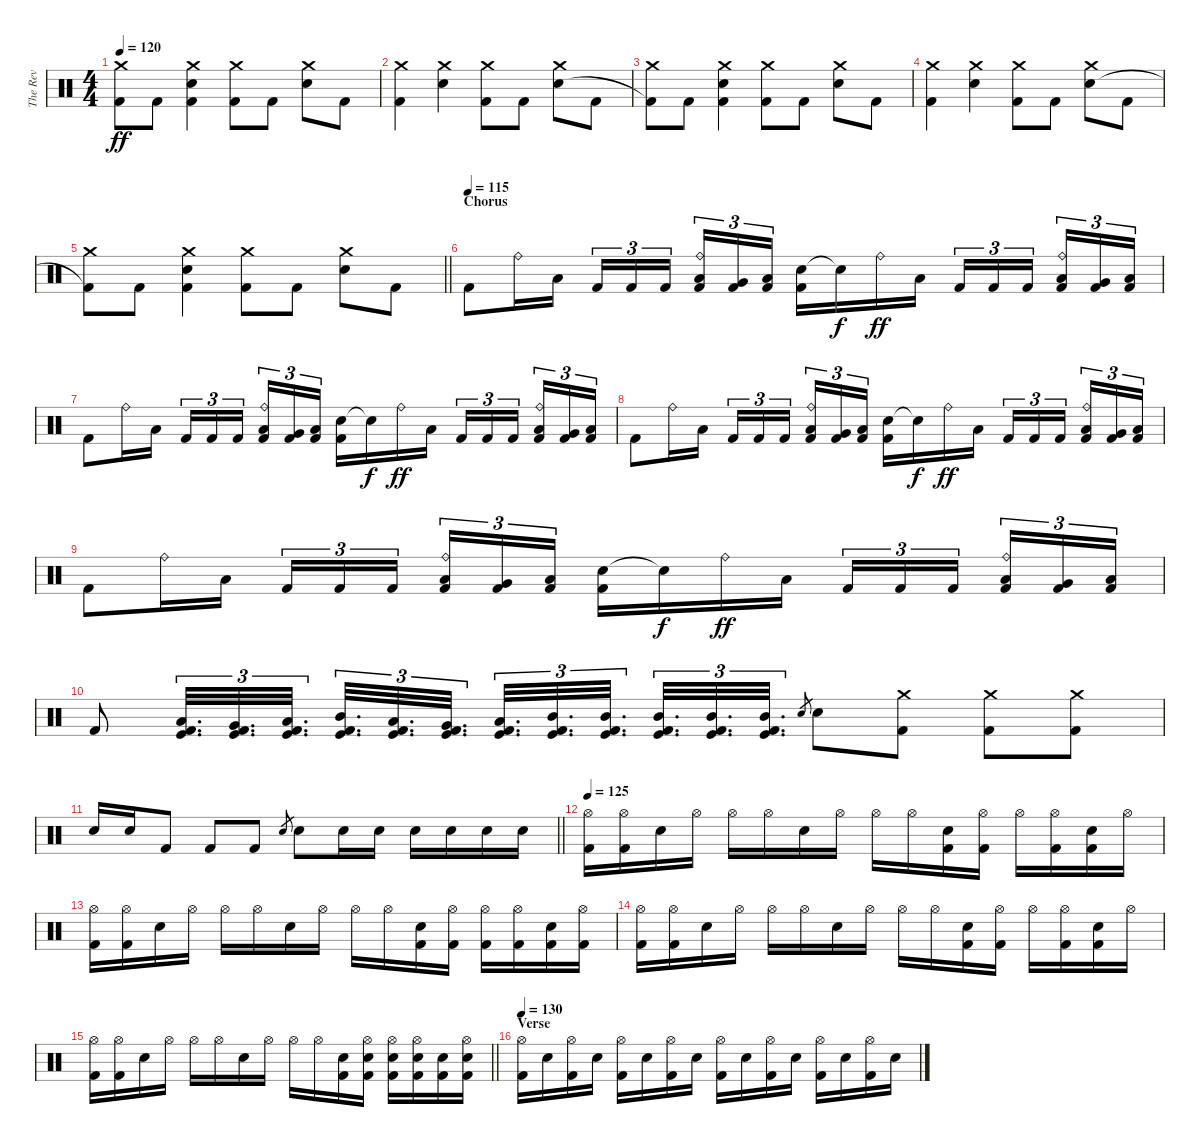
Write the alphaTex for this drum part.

\track ("The Rev" "The Rev") {instrument percussion}
\staff {score}
\articulation defaults
\ts (4 4)
\tempo 120
\clef neutral
\ks c
("Crash medium (hit)" "Kick (hit) 2"{t}).8{dy ff} "Kick (hit) 2".8 ("Crash medium (hit)" "Electric Snare (hit)" "Kick (hit) 2").4 ("Crash medium (hit)" "Kick (hit) 2").8 "Kick (hit) 2".8 ("Crash medium (hit)" "Electric Snare (hit)").8 "Kick (hit) 2".8 |
("Crash medium (hit)" "Kick (hit) 2").4 ("Crash medium (hit)" "Electric Snare (hit)").4 ("Crash medium (hit)" "Kick (hit) 2").8 "Kick (hit) 2".8 ("Crash medium (hit)" "Electric Snare (hit)").8 "Kick (hit) 2".8 |
("Crash medium (hit)" "Kick (hit) 2"{t}).8 "Kick (hit) 2".8 ("Crash medium (hit)" "Electric Snare (hit)" "Kick (hit) 2").4 ("Crash medium (hit)" "Kick (hit) 2").8 "Kick (hit) 2".8 ("Crash medium (hit)" "Electric Snare (hit)").8 "Kick (hit) 2".8 |
("Crash medium (hit)" "Kick (hit) 2").4 ("Crash medium (hit)" "Electric Snare (hit)").4 ("Crash medium (hit)" "Kick (hit) 2").8 "Kick (hit) 2".8 ("Crash medium (hit)" "Electric Snare (hit)").8 "Kick (hit) 2".8 |
\barLineRight lightlight
("Crash medium (hit)" "Kick (hit) 2"{t}).8 "Kick (hit) 2".8 ("Crash medium (hit)" "Electric Snare (hit)" "Kick (hit) 2").4 ("Crash medium (hit)" "Kick (hit) 2").8 "Kick (hit) 2".8 ("Crash medium (hit)" "Electric Snare (hit)").8 "Kick (hit) 2".8 |
\section ("" "Chorus")
\tempo (115)
"Kick (hit) 2".8 "Ride (bell)".16 "Low Tom (hit)".16 "Kick (hit) 2".16{tu (3 2)} "Kick (hit) 2".16{tu (3 2)} "Kick (hit) 2".16{tu (3 2) beam splitsecondary} ("Ride (bell)" "Low Tom (hit)" "Kick (hit) 2").16{tu (3 2)} ("Very Low Tom (hit)" "Kick (hit) 2").16{tu (3 2)} ("Low Floor Tom (hit)" "Kick (hit) 2").16{tu (3 2)} ("Electric Snare (hit)" "Kick (hit) 2").16 "Snare (hit)"{t}.16{dy f} "Ride (bell)".16{dy ff} "Low Tom (hit)".16 "Kick (hit) 2".16{tu (3 2)} "Kick (hit) 2".16{tu (3 2)} "Kick (hit) 2".16{tu (3 2) beam splitsecondary} ("Ride (bell)" "Low Tom (hit)" "Kick (hit) 2").16{tu (3 2)} ("Very Low Tom (hit)" "Kick (hit) 2").16{tu (3 2)} ("Low Floor Tom (hit)" "Kick (hit) 2").16{tu (3 2)} |
"Kick (hit) 2".8 "Ride (bell)".16 "Low Tom (hit)".16 "Kick (hit) 2".16{tu (3 2)} "Kick (hit) 2".16{tu (3 2)} "Kick (hit) 2".16{tu (3 2) beam splitsecondary} ("Ride (bell)" "Low Tom (hit)" "Kick (hit) 2").16{tu (3 2)} ("Very Low Tom (hit)" "Kick (hit) 2").16{tu (3 2)} ("Low Floor Tom (hit)" "Kick (hit) 2").16{tu (3 2)} ("Electric Snare (hit)" "Kick (hit) 2").16 "Snare (hit)"{t}.16{dy f} "Ride (bell)".16{dy ff} "Low Tom (hit)".16 "Kick (hit) 2".16{tu (3 2)} "Kick (hit) 2".16{tu (3 2)} "Kick (hit) 2".16{tu (3 2) beam splitsecondary} ("Ride (bell)" "Low Tom (hit)" "Kick (hit) 2").16{tu (3 2)} ("Very Low Tom (hit)" "Kick (hit) 2").16{tu (3 2)} ("Low Floor Tom (hit)" "Kick (hit) 2").16{tu (3 2)} |
"Kick (hit) 2".8 "Ride (bell)".16 "Low Tom (hit)".16 "Kick (hit) 2".16{tu (3 2)} "Kick (hit) 2".16{tu (3 2)} "Kick (hit) 2".16{tu (3 2) beam splitsecondary} ("Ride (bell)" "Low Tom (hit)" "Kick (hit) 2").16{tu (3 2)} ("Very Low Tom (hit)" "Kick (hit) 2").16{tu (3 2)} ("Low Floor Tom (hit)" "Kick (hit) 2").16{tu (3 2)} ("Electric Snare (hit)" "Kick (hit) 2").16 "Snare (hit)"{t}.16{dy f} "Ride (bell)".16{dy ff} "Low Tom (hit)".16 "Kick (hit) 2".16{tu (3 2)} "Kick (hit) 2".16{tu (3 2)} "Kick (hit) 2".16{tu (3 2) beam splitsecondary} ("Ride (bell)" "Low Tom (hit)" "Kick (hit) 2").16{tu (3 2)} ("Very Low Tom (hit)" "Kick (hit) 2").16{tu (3 2)} ("Low Floor Tom (hit)" "Kick (hit) 2").16{tu (3 2)} |
"Kick (hit) 2".8 "Ride (bell)".16 "Low Tom (hit)".16 "Kick (hit) 2".16{tu (3 2)} "Kick (hit) 2".16{tu (3 2)} "Kick (hit) 2".16{tu (3 2) beam splitsecondary} ("Ride (bell)" "Low Tom (hit)" "Kick (hit) 2").16{tu (3 2)} ("Very Low Tom (hit)" "Kick (hit) 2").16{tu (3 2)} ("Low Floor Tom (hit)" "Kick (hit) 2").16{tu (3 2)} ("Electric Snare (hit)" "Kick (hit) 2").16 "Snare (hit)"{t}.16{dy f} "Ride (bell)".16{dy ff} "Low Tom (hit)".16 "Kick (hit) 2".16{tu (3 2)} "Kick (hit) 2".16{tu (3 2)} "Kick (hit) 2".16{tu (3 2) beam splitsecondary} ("Ride (bell)" "Low Tom (hit)" "Kick (hit) 2").16{tu (3 2)} ("Very Low Tom (hit)" "Kick (hit) 2").16{tu (3 2)} ("Low Floor Tom (hit)" "Kick (hit) 2").16{tu (3 2)} |
"Kick (hit) 2".8 ("Kick (hit)" "Low Tom (hit)" "Kick (hit) 2").32{d tu (3 2)} ("Kick (hit)" "Very Low Tom (hit)" "Kick (hit) 2").32{d tu (3 2)} ("Kick (hit)" "Low Floor Tom (hit)" "Kick (hit) 2").32{d tu (3 2)} ("Kick (hit)" "Mid Tom (hit)" "Kick (hit) 2").32{d tu (3 2)} ("Kick (hit)" "Low Tom (hit)" "Kick (hit) 2").32{d tu (3 2)} ("Kick (hit)" "Very Low Tom (hit)" "Kick (hit) 2").32{d tu (3 2)} ("Kick (hit)" "Low Floor Tom (hit)" "Kick (hit) 2").32{d tu (3 2)} ("Kick (hit)" "Mid Tom (hit)" "Kick (hit) 2").32{d tu (3 2)} ("Kick (hit)" "Mid Tom (hit)" "Kick (hit) 2").32{d tu (3 2)} ("Kick (hit)" "Mid Tom (hit)" "Kick (hit) 2").32{d tu (3 2)} ("Kick (hit)" "Mid Tom (hit)" "Kick (hit) 2").32{d tu (3 2)} ("Kick (hit)" "Mid Tom (hit)" "Kick (hit) 2").32{d tu (3 2)} "Electric Snare (hit)".8{gr} "Electric Snare (hit)".8 ("Crash medium (hit)" "Kick (hit) 2").8 ("Crash medium (hit)" "Kick (hit) 2").8 ("Crash medium (hit)" "Kick (hit) 2").8 |
\barLineRight lightlight "Electric Snare (hit)".16 "Electric Snare (hit)".16 "Kick (hit) 2".8 "Kick (hit) 2".8 "Kick (hit) 2".8 "Electric Snare (hit)".8{gr} "Electric Snare (hit)".8 "Electric Snare (hit)".16 "Electric Snare (hit)".16 "Electric Snare (hit)".16 "Electric Snare (hit)".16 "Electric Snare (hit)".16 "Electric Snare (hit)".16
|
\tempo 125
("Hi-Hat (open)" "Kick (hit) 2").16 ("Hi-Hat (open)" "Kick (hit) 2").16 "Electric Snare (hit)".16 "Hi-Hat (open)".16 "Hi-Hat (open)".16 "Hi-Hat (open)".16 "Electric Snare (hit)".16 "Hi-Hat (open)".16 "Hi-Hat (open)".16 "Hi-Hat (open)".16 ("Electric Snare (hit)" "Kick (hit) 2").16 ("Hi-Hat (open)" "Kick (hit) 2").16 "Hi-Hat (open)".16 ("Hi-Hat (open)" "Kick (hit) 2").16 ("Electric Snare (hit)" "Kick (hit) 2").16 "Hi-Hat (open)".16 |
("Hi-Hat (open)" "Kick (hit) 2").16 ("Hi-Hat (open)" "Kick (hit) 2").16 "Electric Snare (hit)".16 "Hi-Hat (open)".16 "Hi-Hat (open)".16 "Hi-Hat (open)".16 "Electric Snare (hit)".16 "Hi-Hat (open)".16 "Hi-Hat (open)".16 "Hi-Hat (open)".16 ("Electric Snare (hit)" "Kick (hit) 2").16 ("Hi-Hat (open)" "Kick (hit) 2").16 ("Hi-Hat (open)" "Kick (hit) 2").16 ("Hi-Hat (open)" "Kick (hit) 2").16 ("Electric Snare (hit)" "Kick (hit) 2").16 ("Hi-Hat (open)" "Kick (hit) 2").16 |
("Hi-Hat (open)" "Kick (hit) 2").16 ("Hi-Hat (open)" "Kick (hit) 2").16 "Electric Snare (hit)".16 "Hi-Hat (open)".16 "Hi-Hat (open)".16 "Hi-Hat (open)".16 "Electric Snare (hit)".16 "Hi-Hat (open)".16 "Hi-Hat (open)".16 "Hi-Hat (open)".16 ("Electric Snare (hit)" "Kick (hit) 2").16 ("Hi-Hat (open)" "Kick (hit) 2").16 "Hi-Hat (open)".16 ("Hi-Hat (open)" "Kick (hit) 2").16 ("Electric Snare (hit)" "Kick (hit) 2").16 "Hi-Hat (open)".16 |
\barLineRight lightlight
("Hi-Hat (open)" "Kick (hit) 2").16 ("Hi-Hat (open)" "Kick (hit) 2").16 "Electric Snare (hit)".16 "Hi-Hat (open)".16 "Hi-Hat (open)".16 "Hi-Hat (open)".16 "Electric Snare (hit)".16 "Hi-Hat (open)".16 "Hi-Hat (open)".16 "Hi-Hat (open)".16 ("Electric Snare (hit)" "Kick (hit) 2").16 ("Hi-Hat (open)" "Electric Snare (hit)" "Kick (hit) 2").16 ("Hi-Hat (open)" "Electric Snare (hit)" "Kick (hit) 2").16 ("Hi-Hat (open)" "Electric Snare (hit)" "Kick (hit) 2").16 ("Electric Snare (hit)" "Kick (hit) 2").16 ("Hi-Hat (open)" "Electric Snare (hit)" "Kick (hit) 2").16 |
\section ("" "Verse")
\tempo 130
("Hi-Hat (open)" "Kick (hit) 2").16 "Electric Snare (hit)".16 ("Hi-Hat (open)" "Kick (hit) 2").16 "Electric Snare (hit)".16 ("Hi-Hat (open)" "Kick (hit) 2").16 "Electric Snare (hit)".16 ("Hi-Hat (open)" "Kick (hit) 2").16 "Electric Snare (hit)".16 ("Hi-Hat (open)" "Kick (hit) 2").16 "Electric Snare (hit)".16 ("Hi-Hat (open)" "Kick (hit) 2").16 "Electric Snare (hit)".16 ("Hi-Hat (open)" "Kick (hit) 2").16 "Electric Snare (hit)".16 ("Hi-Hat (open)" "Kick (hit) 2").16 "Electric Snare (hit)".16
